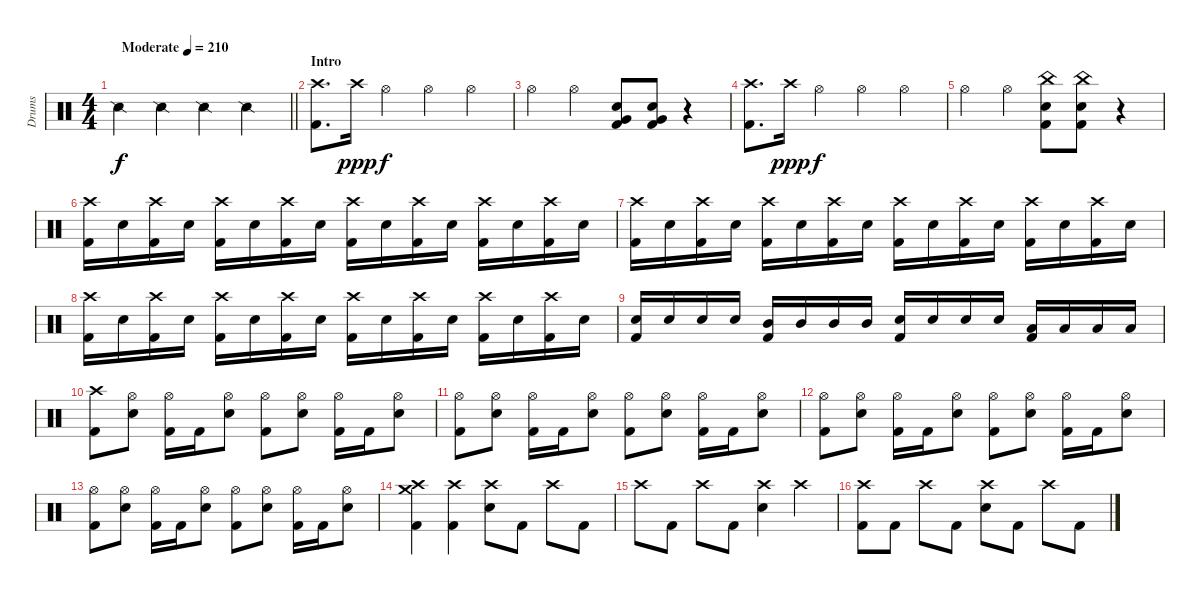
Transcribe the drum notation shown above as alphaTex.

\track ("Drums" "Drums") {instrument percussion}
\staff {score}
\articulation defaults
\ts (4 4)
\tempo (210 "Moderate")
\clef neutral
\barLineRight lightlight
\ks c "Snare (side stick) 2".4{dy f} "Snare (side stick) 2".4 "Snare (side stick) 2".4 "Snare (side stick) 2".4
|
\section ("" "Intro")
("Kick (hit) 2" "Crash high (hit)").8{d} "Crash high (hit)".16{dy ppp} "Hi-Hat (open)".4{dy f} "Hi-Hat (open)".4 "Hi-Hat (open)".4 |
"Hi-Hat (open)".4 "Hi-Hat (open)".4 ("Kick (hit) 2" "Electric Snare (hit)" "Very Low Tom (hit)").8 ("Kick (hit) 2" "Electric Snare (hit)" "Very Low Tom (hit)").8 r.4 |
("Kick (hit) 2" "Crash high (hit)").8{d} "Crash high (hit)".16{dy ppp} "Hi-Hat (open)".4{dy f} "Hi-Hat (open)".4 "Hi-Hat (open)".4 |
"Hi-Hat (open)".4 "Hi-Hat (open)".4 ("Kick (hit) 2" "Electric Snare (hit)" "China (hit)").8 ("Kick (hit) 2" "Electric Snare (hit)" "China (hit)").8 r.4 |
("Kick (hit) 2" "Crash high (hit)").16 "Electric Snare (hit)".16 ("Kick (hit) 2" "Crash high (hit)").16 "Electric Snare (hit)".16 ("Kick (hit) 2" "Crash high (hit)").16 "Electric Snare (hit)".16 ("Kick (hit) 2" "Crash high (hit)").16 "Electric Snare (hit)".16 ("Kick (hit) 2" "Crash high (hit)").16 "Electric Snare (hit)".16 ("Kick (hit) 2" "Crash high (hit)").16 "Electric Snare (hit)".16 ("Kick (hit) 2" "Crash high (hit)").16 "Electric Snare (hit)".16 ("Kick (hit) 2" "Crash high (hit)").16 "Electric Snare (hit)".16 |
("Kick (hit) 2" "Crash high (hit)").16 "Electric Snare (hit)".16 ("Kick (hit) 2" "Crash high (hit)").16 "Electric Snare (hit)".16 ("Kick (hit) 2" "Crash high (hit)").16 "Electric Snare (hit)".16 ("Kick (hit) 2" "Crash high (hit)").16 "Electric Snare (hit)".16 ("Kick (hit) 2" "Crash high (hit)").16 "Electric Snare (hit)".16 ("Kick (hit) 2" "Crash high (hit)").16 "Electric Snare (hit)".16 ("Kick (hit) 2" "Crash high (hit)").16 "Electric Snare (hit)".16 ("Kick (hit) 2" "Crash high (hit)").16 "Electric Snare (hit)".16 |
("Kick (hit) 2" "Crash high (hit)").16 "Electric Snare (hit)".16 ("Kick (hit) 2" "Crash high (hit)").16 "Electric Snare (hit)".16 ("Kick (hit) 2" "Crash high (hit)").16 "Electric Snare (hit)".16 ("Kick (hit) 2" "Crash high (hit)").16 "Electric Snare (hit)".16 ("Kick (hit) 2" "Crash high (hit)").16 "Electric Snare (hit)".16 ("Kick (hit) 2" "Crash high (hit)").16 "Electric Snare (hit)".16 ("Kick (hit) 2" "Crash high (hit)").16 "Electric Snare (hit)".16 ("Kick (hit) 2" "Crash high (hit)").16 "Electric Snare (hit)".16 |
("Kick (hit) 2" "Electric Snare (hit)").16 "Electric Snare (hit)".16 "Electric Snare (hit)".16 "Electric Snare (hit)".16 ("Kick (hit) 2" "Mid Tom (hit)").16 "Mid Tom (hit)".16 "Mid Tom (hit)".16 "Mid Tom (hit)".16 ("Kick (hit) 2" "Electric Snare (hit)").16 "Electric Snare (hit)".16 "Electric Snare (hit)".16 "Electric Snare (hit)".16 ("Kick (hit) 2" "Low Tom (hit)").16 "Low Tom (hit)".16 "Low Tom (hit)".16 "Low Tom (hit)".16 |
("Kick (hit) 2" "Crash high (hit)").8 ("Electric Snare (hit)" "Hi-Hat (open)").8 ("Kick (hit) 2" "Hi-Hat (open)").16 "Kick (hit) 2".16 ("Electric Snare (hit)" "Hi-Hat (open)").8 ("Kick (hit) 2" "Hi-Hat (open)").8 ("Electric Snare (hit)" "Hi-Hat (open)").8 ("Kick (hit) 2" "Hi-Hat (open)").16 "Kick (hit) 2".16 ("Electric Snare (hit)" "Hi-Hat (open)").8 |
("Kick (hit) 2" "Hi-Hat (open)").8 ("Electric Snare (hit)" "Hi-Hat (open)").8 ("Kick (hit) 2" "Hi-Hat (open)").16 "Kick (hit) 2".16 ("Electric Snare (hit)" "Hi-Hat (open)").8 ("Kick (hit) 2" "Hi-Hat (open)").8 ("Electric Snare (hit)" "Hi-Hat (open)").8 ("Kick (hit) 2" "Hi-Hat (open)").16 "Kick (hit) 2".16 ("Electric Snare (hit)" "Hi-Hat (open)").8 |
("Kick (hit) 2" "Hi-Hat (open)").8 ("Electric Snare (hit)" "Hi-Hat (open)").8 ("Kick (hit) 2" "Hi-Hat (open)").16 "Kick (hit) 2".16 ("Electric Snare (hit)" "Hi-Hat (open)").8 ("Kick (hit) 2" "Hi-Hat (open)").8 ("Electric Snare (hit)" "Hi-Hat (open)").8 ("Kick (hit) 2" "Hi-Hat (open)").16 "Kick (hit) 2".16 ("Electric Snare (hit)" "Hi-Hat (open)").8 |
("Kick (hit) 2" "Hi-Hat (open)").8 ("Electric Snare (hit)" "Hi-Hat (open)").8 ("Kick (hit) 2" "Hi-Hat (open)").16 "Kick (hit) 2".16 ("Electric Snare (hit)" "Hi-Hat (open)").8 ("Kick (hit) 2" "Hi-Hat (open)").8 ("Electric Snare (hit)" "Hi-Hat (open)").8 ("Kick (hit) 2" "Hi-Hat (open)").16 "Kick (hit) 2".16 ("Electric Snare (hit)" "Hi-Hat (open)").8 |
("Kick (hit) 2" "Crash high (hit)" "Crash medium (hit)").4 ("Kick (hit) 2" "Crash high (hit)").4 ("Electric Snare (hit)" "Crash high (hit)").8 "Kick (hit) 2".8 "Crash high (hit)".8 "Kick (hit) 2".8 |
"Crash high (hit)".8 "Kick (hit) 2".8 "Crash high (hit)".8 "Kick (hit) 2".8 ("Electric Snare (hit)" "Crash high (hit)").4 "Crash high (hit)".4 |
("Kick (hit) 2" "Crash high (hit)").8 "Kick (hit) 2".8 "Crash high (hit)".8 "Kick (hit) 2".8 ("Electric Snare (hit)" "Crash high (hit)").8 "Kick (hit) 2".8 "Crash high (hit)".8 "Kick (hit) 2".8
